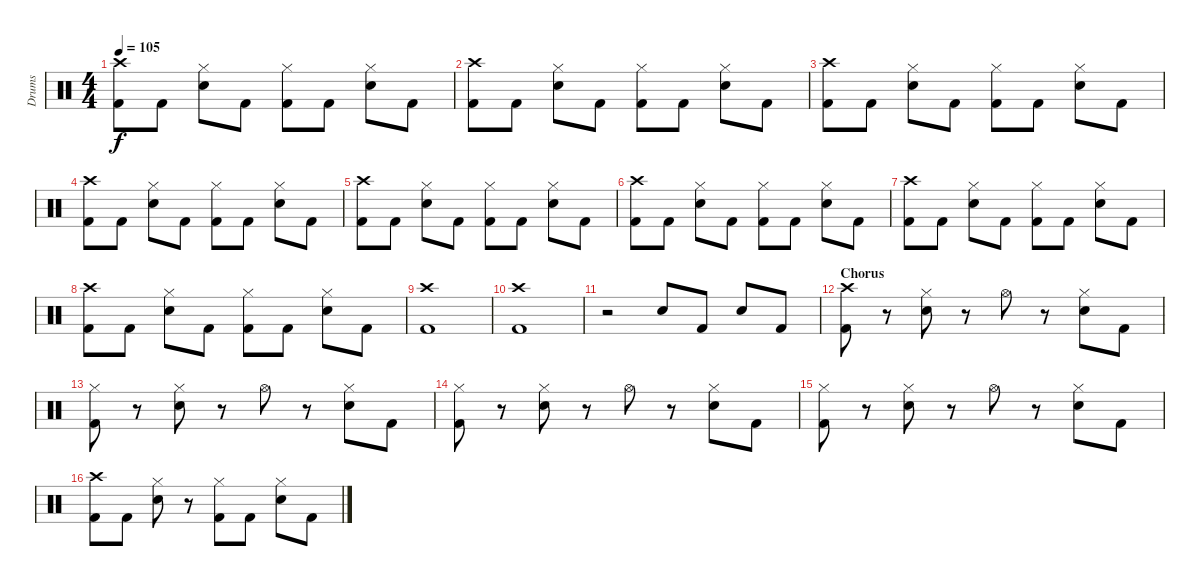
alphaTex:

\track ("Drums" "Drums") {instrument percussion}
\staff {score}
\articulation defaults
\ts (4 4)
\tempo 105
\clef neutral
\ks c
("Crash high (hit)" "Kick (hit) 2").8{dy f} "Kick (hit) 2".8 ("Hi-Hat (closed)" "Electric Snare (hit)").8 "Kick (hit) 2".8 ("Hi-Hat (closed)" "Kick (hit) 2").8 "Kick (hit) 2".8 ("Hi-Hat (closed)" "Electric Snare (hit)").8 "Kick (hit) 2".8 |
("Crash high (hit)" "Kick (hit) 2").8 "Kick (hit) 2".8 ("Hi-Hat (closed)" "Electric Snare (hit)").8 "Kick (hit) 2".8 ("Hi-Hat (closed)" "Kick (hit) 2").8 "Kick (hit) 2".8 ("Hi-Hat (closed)" "Electric Snare (hit)").8 "Kick (hit) 2".8 |
("Crash high (hit)" "Kick (hit) 2").8 "Kick (hit) 2".8 ("Hi-Hat (closed)" "Electric Snare (hit)").8 "Kick (hit) 2".8 ("Hi-Hat (closed)" "Kick (hit) 2").8 "Kick (hit) 2".8 ("Hi-Hat (closed)" "Electric Snare (hit)").8 "Kick (hit) 2".8 |
("Crash high (hit)" "Kick (hit) 2").8 "Kick (hit) 2".8 ("Hi-Hat (closed)" "Electric Snare (hit)").8 "Kick (hit) 2".8 ("Hi-Hat (closed)" "Kick (hit) 2").8 "Kick (hit) 2".8 ("Hi-Hat (closed)" "Electric Snare (hit)").8 "Kick (hit) 2".8 |
("Crash high (hit)" "Kick (hit) 2").8 "Kick (hit) 2".8 ("Hi-Hat (closed)" "Electric Snare (hit)").8 "Kick (hit) 2".8 ("Hi-Hat (closed)" "Kick (hit) 2").8 "Kick (hit) 2".8 ("Hi-Hat (closed)" "Electric Snare (hit)").8 "Kick (hit) 2".8 |
("Crash high (hit)" "Kick (hit) 2").8 "Kick (hit) 2".8 ("Hi-Hat (closed)" "Electric Snare (hit)").8 "Kick (hit) 2".8 ("Hi-Hat (closed)" "Kick (hit) 2").8 "Kick (hit) 2".8 ("Hi-Hat (closed)" "Electric Snare (hit)").8 "Kick (hit) 2".8 |
("Crash high (hit)" "Kick (hit) 2").8 "Kick (hit) 2".8 ("Hi-Hat (closed)" "Electric Snare (hit)").8 "Kick (hit) 2".8 ("Hi-Hat (closed)" "Kick (hit) 2").8 "Kick (hit) 2".8 ("Hi-Hat (closed)" "Electric Snare (hit)").8 "Kick (hit) 2".8 |
("Crash high (hit)" "Kick (hit) 2").8 "Kick (hit) 2".8 ("Hi-Hat (closed)" "Electric Snare (hit)").8 "Kick (hit) 2".8 ("Hi-Hat (closed)" "Kick (hit) 2").8 "Kick (hit) 2".8 ("Hi-Hat (closed)" "Electric Snare (hit)").8 "Kick (hit) 2".8 |
("Crash high (hit)" "Kick (hit) 2").1 |
("Crash high (hit)" "Kick (hit) 2").1 |
r.2 "Electric Snare (hit)".8 "Kick (hit) 2".8 "Electric Snare (hit)".8 "Kick (hit) 2".8 |
\section ("" "Chorus")
("Crash high (hit)" "Kick (hit) 2").8 r.8 ("Hi-Hat (closed)" "Electric Snare (hit)").8 r.8 "Hi-Hat (open)".8 r.8 ("Hi-Hat (closed)" "Electric Snare (hit)").8 "Kick (hit) 2".8 |
("Hi-Hat (closed)" "Kick (hit) 2").8 r.8 ("Hi-Hat (closed)" "Electric Snare (hit)").8 r.8 "Hi-Hat (open)".8 r.8 ("Hi-Hat (closed)" "Electric Snare (hit)").8 "Kick (hit) 2".8 |
("Hi-Hat (closed)" "Kick (hit) 2").8 r.8 ("Hi-Hat (closed)" "Electric Snare (hit)").8 r.8 "Hi-Hat (open)".8 r.8 ("Hi-Hat (closed)" "Electric Snare (hit)").8 "Kick (hit) 2".8 |
("Hi-Hat (closed)" "Kick (hit) 2").8 r.8 ("Hi-Hat (closed)" "Electric Snare (hit)").8 r.8 "Hi-Hat (open)".8 r.8 ("Hi-Hat (closed)" "Electric Snare (hit)").8 "Kick (hit) 2".8 |
("Crash high (hit)" "Kick (hit) 2").8 "Kick (hit) 2".8 ("Hi-Hat (closed)" "Electric Snare (hit)").8 r.8 ("Hi-Hat (closed)" "Kick (hit) 2").8 "Kick (hit) 2".8 ("Hi-Hat (closed)" "Electric Snare (hit)").8 "Kick (hit) 2".8
